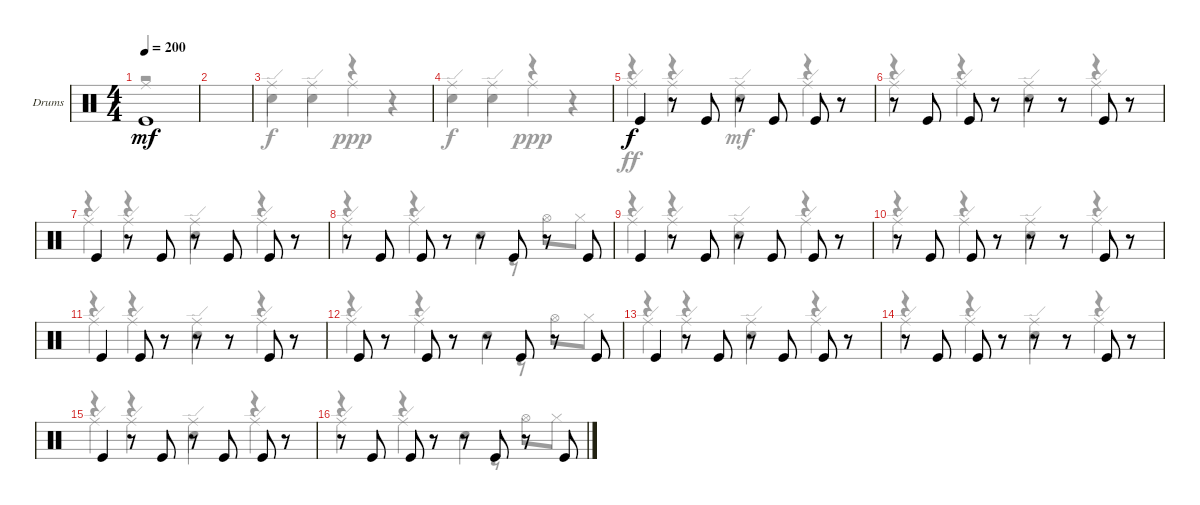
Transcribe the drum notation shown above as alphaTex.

\defaultSystemsLayout 4
\bracketExtendMode groupsimilarinstruments
\firstSystemTrackNameOrientation horizontal
\otherSystemsTrackNameOrientation horizontal
\track ("Drum" "Drums") {instrument percussion}
\staff {score}
\articulation defaults
\voice
\ts (4 4)
\tempo 200
\clef neutral
\ks c "Kick (hit)".1{dy mf}
|
|
|
|
"Kick (hit)".4{dy f} r.8 "Kick (hit)".8 r.8 "Kick (hit)".8 "Kick (hit)".8 r.8 |
r.8 "Kick (hit)".8 "Kick (hit)".8 r.8 r.8 r.8 "Kick (hit)".8 r.8 |
"Kick (hit)".4 r.8 "Kick (hit)".8 r.8 "Kick (hit)".8 "Kick (hit)".8 r.8 |
r.8 "Kick (hit)".8 "Kick (hit)".8 r.8 r.8 "Kick (hit)".8 r.8 "Kick (hit)".8 |
"Kick (hit)".4 r.8 "Kick (hit)".8 r.8 "Kick (hit)".8 "Kick (hit)".8 r.8 |
r.8 "Kick (hit)".8 "Kick (hit)".8 r.8 r.8 r.8 "Kick (hit)".8 r.8 |
"Kick (hit)".4 "Kick (hit)".8 r.8 r.8 r.8 "Kick (hit)".8 r.8 |
"Kick (hit)".8 r.8 "Kick (hit)".8 r.8 r.8 "Kick (hit)".8 r.8 "Kick (hit)".8 |
"Kick (hit)".4 r.8 "Kick (hit)".8 r.8 "Kick (hit)".8 "Kick (hit)".8 r.8 |
r.8 "Kick (hit)".8 "Kick (hit)".8 r.8 r.8 r.8 "Kick (hit)".8 r.8 |
"Kick (hit)".4 r.8 "Kick (hit)".8 r.8 "Kick (hit)".8 "Kick (hit)".8 r.8 |
r.8 "Kick (hit)".8 "Kick (hit)".8 r.8 r.8 "Kick (hit)".8 r.8 "Kick (hit)".8
\voice
\clef neutral
\ottava regular
\simile none
\ks c
r.1{dy mp} |
|
"Snare (hit) 2".4{dy f} "Snare (hit) 2".4 r.4 r.4 |
"Snare (hit) 2".4 "Snare (hit) 2".4 r.4 r.4 |
r.4 r.4 "Snare (hit) 2".4{dy mf} r.4 |
r.4 r.4 "Snare (hit) 2".4 r.4 |
r.4 r.4 "Snare (hit) 2".4 r.4 |
r.4 r.4 "Snare (hit) 2".4 |
r.4 r.4 "Snare (hit) 2".4 r.4 |
r.4 r.4 "Snare (hit) 2".4 r.4 |
r.4 r.4 "Snare (hit) 2".4 r.4 |
r.4 r.4 "Snare (hit) 2".4 |
r.4 r.4 "Snare (hit) 2".4 r.4 |
r.4 r.4 "Snare (hit) 2".4 r.4 |
r.4 r.4 "Snare (hit) 2".4 r.4 |
r.4 r.4 "Snare (hit) 2".4
\voice
\clef neutral
\ottava regular
\simile none
\ks c "Ride (middle)".1{dy mf}
|
|
"Ride (edge)".4{dy f} "Ride (edge)".4 "Ride (middle)".4{dy ppp} r.4 |
"Ride (edge)".4{dy f} "Ride (edge)".4 "Ride (middle)".4{dy ppp} r.4 |
"Ride (edge)".4{dy ff} "Ride (edge)".4 "Ride (edge)".4 "Ride (edge)".4 |
"Ride (edge)".4 "Ride (edge)".4 "Ride (edge)".4 "Ride (edge)".4 |
"Ride (edge)".4 "Ride (edge)".4 "Ride (edge)".4 "Ride (edge)".4 |
"Ride (edge)".4 "Ride (edge)".4 r.8 r.8 "Hi-Hat (open)".8 "Hi-Hat (closed)".8 |
"Ride (edge)".4 "Ride (edge)".4 "Ride (edge)".4 "Ride (edge)".4 |
"Ride (edge)".4 "Ride (edge)".4 "Ride (edge)".4 "Ride (edge)".4 |
"Ride (edge)".4 "Ride (edge)".4 "Ride (edge)".4 "Ride (edge)".4 |
"Ride (edge)".4 "Ride (edge)".4 r.8 r.8 "Hi-Hat (open)".8 "Hi-Hat (closed)".8 |
"Ride (edge)".4 "Ride (edge)".4 "Ride (edge)".4 "Ride (edge)".4 |
"Ride (edge)".4 "Ride (edge)".4 "Ride (edge)".4 "Ride (edge)".4 |
"Ride (edge)".4 "Ride (edge)".4 "Ride (edge)".4 "Ride (edge)".4 |
"Ride (edge)".4 "Ride (edge)".4 r.8 r.8 "Hi-Hat (open)".8 "Hi-Hat (closed)".8
